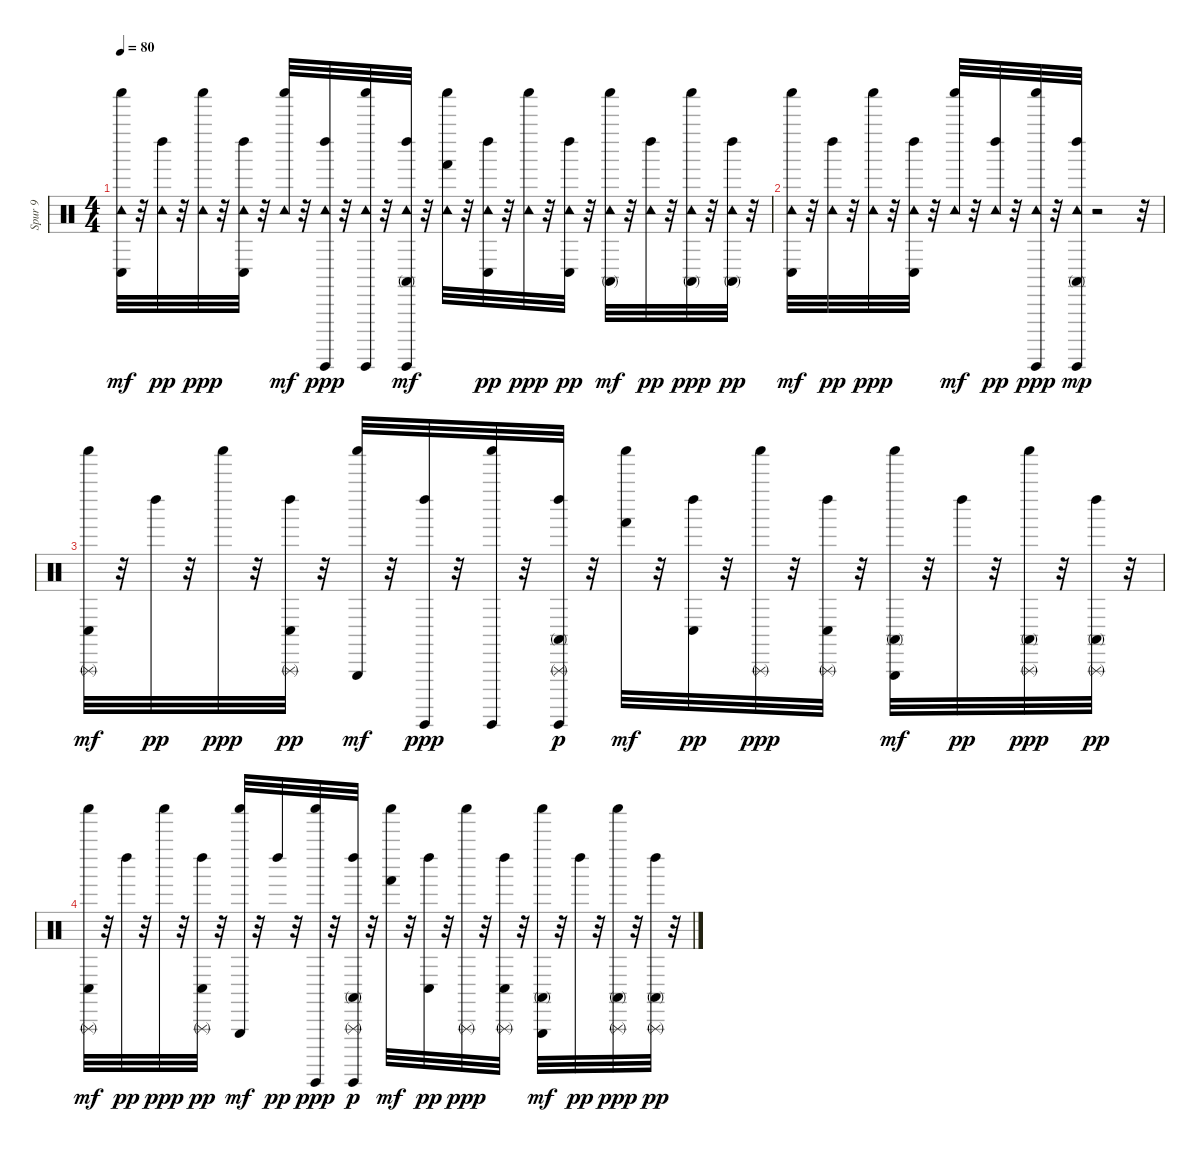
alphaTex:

\track ("Spur 9" "Spur 9") {instrument percussion}
\staff {score}
\articulation defaults
\ts (4 4)
\tempo 80
\clef neutral
\ks c
("Tambourine (hit)" "Conga low (hit)" "Shaker (hit)").32{dy mf} r.32 ("Tambourine (hit)" "Left Maraca (hit)").32{dy pp} r.32 ("Tambourine (hit)" "Shaker (hit)").32{dy ppp} r.32 ("Tambourine (hit)" "Conga low (hit)" "Left Maraca (hit)").32 r.32 ("Tambourine (hit)" "Shaker (hit)").32{dy mf} r.32 ("Tambourine (hit)" "Left Maraca (hit)" "Guiro (hit)").32{dy ppp} r.32 ("Tambourine (hit)" "Guiro (hit)" "Shaker (hit)").32 r.32 ("Tambourine (hit)" "Conga high (mute)" "Left Maraca (hit)" "Guiro (hit)").32{dy mf} r.32 ("Tambourine (hit)" "Hand (hit)" "Shaker (hit)").32 r.32 ("Tambourine (hit)" "Conga low (hit)" "Left Maraca (hit)").32{dy pp} r.32 ("Tambourine (hit)" "Shaker (hit)").32{dy ppp} r.32 ("Tambourine (hit)" "Conga low (hit)" "Left Maraca (hit)").32{dy pp} r.32 ("Tambourine (hit)" "Conga high (mute)" "Shaker (hit)").32{dy mf} r.32 ("Tambourine (hit)" "Left Maraca (hit)").32{dy pp} r.32 ("Tambourine (hit)" "Conga high (mute)" "Shaker (hit)").32{dy ppp} r.32 ("Tambourine (hit)" "Conga high (mute)" "Left Maraca (hit)").32{dy pp} r.32 |
("Tambourine (hit)" "Conga low (hit)" "Shaker (hit)").32{dy mf} r.32 ("Tambourine (hit)" "Left Maraca (hit)").32{dy pp} r.32 ("Tambourine (hit)" "Shaker (hit)").32{dy ppp} r.32 ("Tambourine (hit)" "Conga low (hit)" "Left Maraca (hit)").32 r.32 ("Tambourine (hit)" "Shaker (hit)").32{dy mf} r.32 ("Tambourine (hit)" "Left Maraca (hit)").32{dy pp} r.32 ("Tambourine (hit)" "Guiro (hit)" "Shaker (hit)").32{dy ppp} r.32 ("Tambourine (hit)" "Conga high (mute)" "Left Maraca (hit)" "Guiro (hit)").32{dy mp} r.2 r.32 |
("Conga low (hit)" "Triangle (rnute)" "Shaker (hit)").32{dy mf} r.32 "Left Maraca (hit)".32{dy pp} r.32 "Shaker (hit)".32{dy ppp} r.32 ("Conga low (hit)" "Left Maraca (hit)" "Triangle (rnute)").32{dy pp} r.32 ("Triangle (hit)" "Shaker (hit)").32{dy mf} r.32 ("Left Maraca (hit)" "Guiro (hit)").32{dy ppp} r.32 ("Guiro (hit)" "Shaker (hit)").32 r.32 ("Conga high (mute)" "Left Maraca (hit)" "Guiro (hit)" "Triangle (rnute)").32{dy p} r.32 ("Hand (hit)" "Shaker (hit)").32{dy mf} r.32 ("Conga low (hit)" "Left Maraca (hit)").32{dy pp} r.32 ("Triangle (rnute)" "Shaker (hit)").32{dy ppp} r.32 ("Conga low (hit)" "Left Maraca (hit)" "Triangle (rnute)").32 r.32 ("Conga high (mute)" "Triangle (hit)" "Shaker (hit)").32{dy mf} r.32 "Left Maraca (hit)".32{dy pp} r.32 ("Conga high (mute)" "Triangle (rnute)" "Shaker (hit)").32{dy ppp} r.32 ("Conga high (mute)" "Left Maraca (hit)" "Triangle (rnute)").32{dy pp} r.32 |
("Conga low (hit)" "Triangle (rnute)" "Shaker (hit)").32{dy mf} r.32 "Left Maraca (hit)".32{dy pp} r.32 "Shaker (hit)".32{dy ppp} r.32 ("Conga low (hit)" "Left Maraca (hit)" "Triangle (rnute)").32{dy pp} r.32 ("Triangle (hit)" "Shaker (hit)").32{dy mf} r.32 "Left Maraca (hit)".32{dy pp} r.32 ("Guiro (hit)" "Shaker (hit)").32{dy ppp} r.32 ("Conga high (mute)" "Left Maraca (hit)" "Guiro (hit)" "Triangle (rnute)").32{dy p} r.32 ("Hand (hit)" "Shaker (hit)").32{dy mf} r.32 ("Conga low (hit)" "Left Maraca (hit)").32{dy pp} r.32 ("Triangle (rnute)" "Shaker (hit)").32{dy ppp} r.32 ("Conga low (hit)" "Left Maraca (hit)" "Triangle (rnute)").32 r.32 ("Conga high (mute)" "Triangle (hit)" "Shaker (hit)").32{dy mf} r.32 "Left Maraca (hit)".32{dy pp} r.32 ("Conga high (mute)" "Triangle (rnute)" "Shaker (hit)").32{dy ppp} r.32 ("Conga high (mute)" "Left Maraca (hit)" "Triangle (rnute)").32{dy pp} r.32
